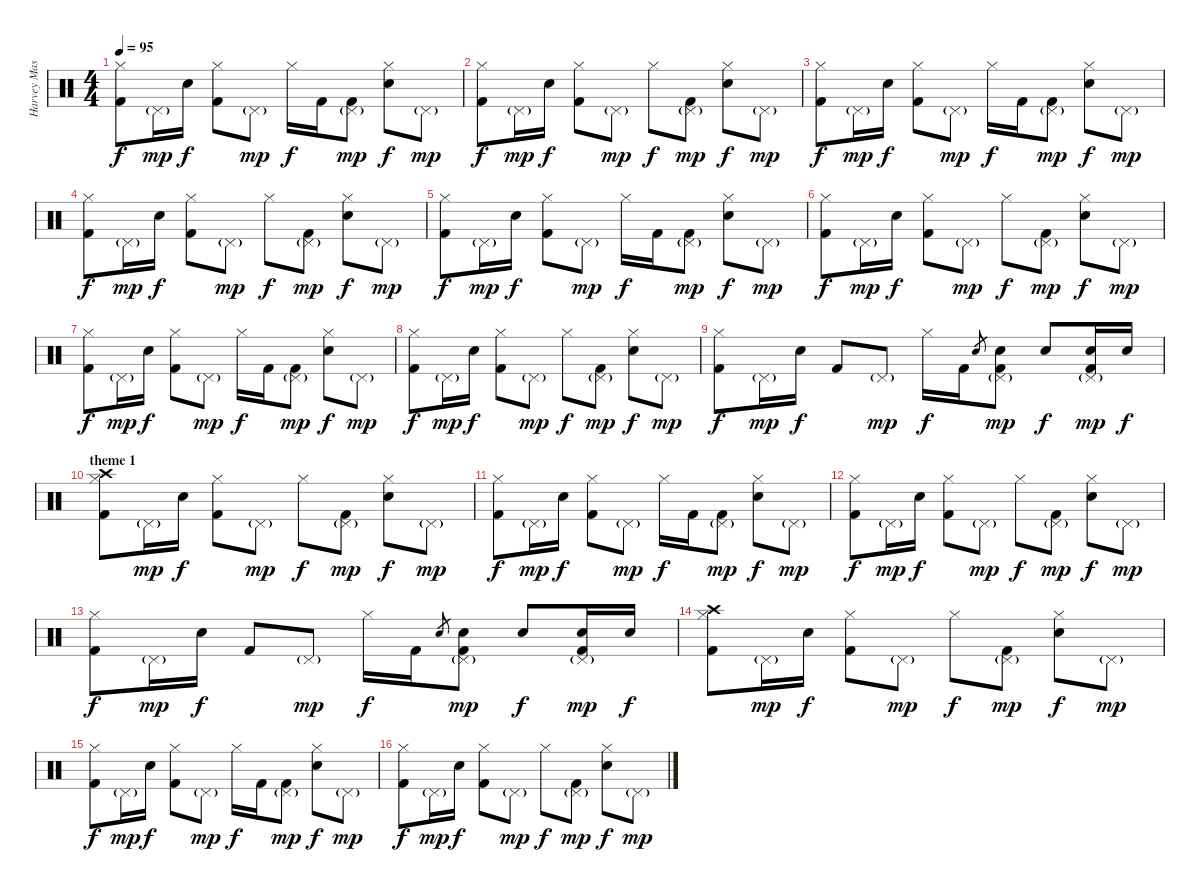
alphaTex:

\track ("Harvey Mason (batterie)" "Harvey Mas") {instrument percussion}
\staff {score}
\articulation defaults
\ts (4 4)
\tempo 95
\clef neutral
\ks c
("Kick (hit) 2" "Hi-Hat (closed)").8{dy f} "Pedal Hi-Hat (hit)"{g}.16{dy mp} "Electric Snare (hit)".16{dy f} ("Kick (hit) 2" "Hi-Hat (closed)").8 "Pedal Hi-Hat (hit)"{g}.8{dy mp} "Hi-Hat (closed)".16{dy f} "Kick (hit) 2".16 ("Kick (hit) 2" "Pedal Hi-Hat (hit)"{g}).8{dy mp} ("Electric Snare (hit)" "Hi-Hat (closed)").8{dy f} "Pedal Hi-Hat (hit)"{g}.8{dy mp} |
("Kick (hit) 2" "Hi-Hat (closed)").8{dy f} "Pedal Hi-Hat (hit)"{g}.16{dy mp} "Electric Snare (hit)".16{dy f} ("Kick (hit) 2" "Hi-Hat (closed)").8 "Pedal Hi-Hat (hit)"{g}.8{dy mp} "Hi-Hat (closed)".8{dy f} ("Kick (hit) 2" "Pedal Hi-Hat (hit)"{g}).8{dy mp} ("Electric Snare (hit)" "Hi-Hat (closed)").8{dy f} "Pedal Hi-Hat (hit)"{g}.8{dy mp} |
("Kick (hit) 2" "Hi-Hat (closed)").8{dy f} "Pedal Hi-Hat (hit)"{g}.16{dy mp} "Electric Snare (hit)".16{dy f} ("Kick (hit) 2" "Hi-Hat (closed)").8 "Pedal Hi-Hat (hit)"{g}.8{dy mp} "Hi-Hat (closed)".16{dy f} "Kick (hit) 2".16 ("Kick (hit) 2" "Pedal Hi-Hat (hit)"{g}).8{dy mp} ("Electric Snare (hit)" "Hi-Hat (closed)").8{dy f} "Pedal Hi-Hat (hit)"{g}.8{dy mp} |
("Kick (hit) 2" "Hi-Hat (closed)").8{dy f} "Pedal Hi-Hat (hit)"{g}.16{dy mp} "Electric Snare (hit)".16{dy f} ("Kick (hit) 2" "Hi-Hat (closed)").8 "Pedal Hi-Hat (hit)"{g}.8{dy mp} "Hi-Hat (closed)".8{dy f} ("Kick (hit) 2" "Pedal Hi-Hat (hit)"{g}).8{dy mp} ("Electric Snare (hit)" "Hi-Hat (closed)").8{dy f} "Pedal Hi-Hat (hit)"{g}.8{dy mp} |
("Kick (hit) 2" "Hi-Hat (closed)").8{dy f} "Pedal Hi-Hat (hit)"{g}.16{dy mp} "Electric Snare (hit)".16{dy f} ("Kick (hit) 2" "Hi-Hat (closed)").8 "Pedal Hi-Hat (hit)"{g}.8{dy mp} "Hi-Hat (closed)".16{dy f} "Kick (hit) 2".16 ("Kick (hit) 2" "Pedal Hi-Hat (hit)"{g}).8{dy mp} ("Electric Snare (hit)" "Hi-Hat (closed)").8{dy f} "Pedal Hi-Hat (hit)"{g}.8{dy mp} |
("Kick (hit) 2" "Hi-Hat (closed)").8{dy f} "Pedal Hi-Hat (hit)"{g}.16{dy mp} "Electric Snare (hit)".16{dy f} ("Kick (hit) 2" "Hi-Hat (closed)").8 "Pedal Hi-Hat (hit)"{g}.8{dy mp} "Hi-Hat (closed)".8{dy f} ("Kick (hit) 2" "Pedal Hi-Hat (hit)"{g}).8{dy mp} ("Electric Snare (hit)" "Hi-Hat (closed)").8{dy f} "Pedal Hi-Hat (hit)"{g}.8{dy mp} |
("Kick (hit) 2" "Hi-Hat (closed)").8{dy f} "Pedal Hi-Hat (hit)"{g}.16{dy mp} "Electric Snare (hit)".16{dy f} ("Kick (hit) 2" "Hi-Hat (closed)").8 "Pedal Hi-Hat (hit)"{g}.8{dy mp} "Hi-Hat (closed)".16{dy f} "Kick (hit) 2".16 ("Kick (hit) 2" "Pedal Hi-Hat (hit)"{g}).8{dy mp} ("Electric Snare (hit)" "Hi-Hat (closed)").8{dy f} "Pedal Hi-Hat (hit)"{g}.8{dy mp} |
("Kick (hit) 2" "Hi-Hat (closed)").8{dy f} "Pedal Hi-Hat (hit)"{g}.16{dy mp} "Electric Snare (hit)".16{dy f} ("Kick (hit) 2" "Hi-Hat (closed)").8 "Pedal Hi-Hat (hit)"{g}.8{dy mp} "Hi-Hat (closed)".8{dy f} ("Kick (hit) 2" "Pedal Hi-Hat (hit)"{g}).8{dy mp} ("Electric Snare (hit)" "Hi-Hat (closed)").8{dy f} "Pedal Hi-Hat (hit)"{g}.8{dy mp} |
("Kick (hit) 2" "Hi-Hat (closed)").8{dy f} "Pedal Hi-Hat (hit)"{g}.16{dy mp} "Electric Snare (hit)".16{dy f} "Kick (hit) 2".8 "Pedal Hi-Hat (hit)"{g}.8{dy mp} "Hi-Hat (closed)".16{dy f} "Kick (hit) 2".16 "Electric Snare (hit)".8{gr} ("Kick (hit) 2" "Pedal Hi-Hat (hit)"{g} "Electric Snare (hit)").8{dy mp} "Electric Snare (hit)".8{dy f} ("Electric Snare (hit)" "Pedal Hi-Hat (hit)"{g} "Kick (hit) 2").16{dy mp} "Electric Snare (hit)".16{dy f} |
\section ("" "theme 1")
("Kick (hit) 2" "Hi-Hat (closed)" "Crash high (hit)").8 "Pedal Hi-Hat (hit)"{g}.16{dy mp} "Electric Snare (hit)".16{dy f} ("Kick (hit) 2" "Hi-Hat (closed)").8 "Pedal Hi-Hat (hit)"{g}.8{dy mp} "Hi-Hat (closed)".8{dy f} ("Kick (hit) 2" "Pedal Hi-Hat (hit)"{g}).8{dy mp} ("Electric Snare (hit)" "Hi-Hat (closed)").8{dy f} "Pedal Hi-Hat (hit)"{g}.8{dy mp} |
("Kick (hit) 2" "Hi-Hat (closed)").8{dy f} "Pedal Hi-Hat (hit)"{g}.16{dy mp} "Electric Snare (hit)".16{dy f} ("Kick (hit) 2" "Hi-Hat (closed)").8 "Pedal Hi-Hat (hit)"{g}.8{dy mp} "Hi-Hat (closed)".16{dy f} "Kick (hit) 2".16 ("Kick (hit) 2" "Pedal Hi-Hat (hit)"{g}).8{dy mp} ("Electric Snare (hit)" "Hi-Hat (closed)").8{dy f} "Pedal Hi-Hat (hit)"{g}.8{dy mp} |
("Kick (hit) 2" "Hi-Hat (closed)").8{dy f} "Pedal Hi-Hat (hit)"{g}.16{dy mp} "Electric Snare (hit)".16{dy f} ("Kick (hit) 2" "Hi-Hat (closed)").8 "Pedal Hi-Hat (hit)"{g}.8{dy mp} "Hi-Hat (closed)".8{dy f} ("Kick (hit) 2" "Pedal Hi-Hat (hit)"{g}).8{dy mp} ("Electric Snare (hit)" "Hi-Hat (closed)").8{dy f} "Pedal Hi-Hat (hit)"{g}.8{dy mp} |
("Kick (hit) 2" "Hi-Hat (closed)").8{dy f} "Pedal Hi-Hat (hit)"{g}.16{dy mp} "Electric Snare (hit)".16{dy f} "Kick (hit) 2".8 "Pedal Hi-Hat (hit)"{g}.8{dy mp} "Hi-Hat (closed)".16{dy f} "Kick (hit) 2".16 "Electric Snare (hit)".8{gr} ("Kick (hit) 2" "Pedal Hi-Hat (hit)"{g} "Electric Snare (hit)").8{dy mp} "Electric Snare (hit)".8{dy f} ("Electric Snare (hit)" "Pedal Hi-Hat (hit)"{g} "Kick (hit) 2").16{dy mp} "Electric Snare (hit)".16{dy f} |
("Kick (hit) 2" "Hi-Hat (closed)" "Crash high (hit)").8 "Pedal Hi-Hat (hit)"{g}.16{dy mp} "Electric Snare (hit)".16{dy f} ("Kick (hit) 2" "Hi-Hat (closed)").8 "Pedal Hi-Hat (hit)"{g}.8{dy mp} "Hi-Hat (closed)".8{dy f} ("Kick (hit) 2" "Pedal Hi-Hat (hit)"{g}).8{dy mp} ("Electric Snare (hit)" "Hi-Hat (closed)").8{dy f} "Pedal Hi-Hat (hit)"{g}.8{dy mp} |
("Kick (hit) 2" "Hi-Hat (closed)").8{dy f} "Pedal Hi-Hat (hit)"{g}.16{dy mp} "Electric Snare (hit)".16{dy f} ("Kick (hit) 2" "Hi-Hat (closed)").8 "Pedal Hi-Hat (hit)"{g}.8{dy mp} "Hi-Hat (closed)".16{dy f} "Kick (hit) 2".16 ("Kick (hit) 2" "Pedal Hi-Hat (hit)"{g}).8{dy mp} ("Electric Snare (hit)" "Hi-Hat (closed)").8{dy f} "Pedal Hi-Hat (hit)"{g}.8{dy mp} |
("Kick (hit) 2" "Hi-Hat (closed)").8{dy f} "Pedal Hi-Hat (hit)"{g}.16{dy mp} "Electric Snare (hit)".16{dy f} ("Kick (hit) 2" "Hi-Hat (closed)").8 "Pedal Hi-Hat (hit)"{g}.8{dy mp} "Hi-Hat (closed)".8{dy f} ("Kick (hit) 2" "Pedal Hi-Hat (hit)"{g}).8{dy mp} ("Electric Snare (hit)" "Hi-Hat (closed)").8{dy f} "Pedal Hi-Hat (hit)"{g}.8{dy mp}
